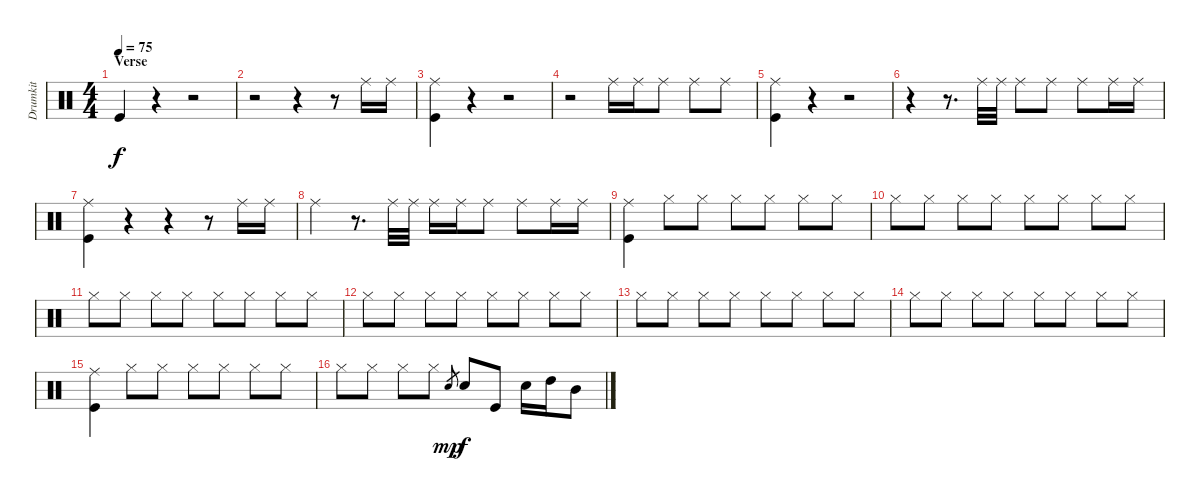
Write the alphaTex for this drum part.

\track ("Drumkit" "Drumkit") {instrument percussion}
\staff {score}
\articulation defaults
\ts (4 4)
\section ("" "Verse ")
\tempo 75
\clef neutral
\ks c "Kick (hit)".4{dy f}
r.4 r.2 |
r.2 r.4 r.8 "Ride (middle)".16 "Ride (middle)".16 |
("Ride (middle)" "Kick (hit)").4 r.4 r.2 |
r.2 "Ride (middle)".16 "Ride (middle)".16 "Ride (middle)".8 "Ride (middle)".8 "Ride (middle)".8 |
("Ride (middle)" "Kick (hit)").4 r.4 r.2 |
r.4 r.8{d} "Ride (middle)".32 "Ride (middle)".32 "Ride (middle)".8 "Ride (middle)".8 "Ride (middle)".8 "Ride (middle)".16 "Ride (middle)".16 |
("Ride (middle)" "Kick (hit)").4 r.4 r.4 r.8 "Ride (middle)".16 "Ride (middle)".16 |
"Ride (middle)".4 r.8{d} "Ride (middle)".32 "Ride (middle)".32 "Ride (middle)".16 "Ride (middle)".16 "Ride (middle)".8 "Ride (middle)".8 "Ride (middle)".16 "Ride (middle)".16 |
("Ride (middle)" "Kick (hit)").4 "Hi-Hat (closed)".8 "Hi-Hat (closed)".8 "Hi-Hat (closed)".8 "Hi-Hat (closed)".8 "Hi-Hat (closed)".8 "Hi-Hat (closed)".8 |
"Hi-Hat (closed)".8 "Hi-Hat (closed)".8 "Hi-Hat (closed)".8 "Hi-Hat (closed)".8 "Hi-Hat (closed)".8 "Hi-Hat (closed)".8 "Hi-Hat (closed)".8 "Hi-Hat (closed)".8 |
"Hi-Hat (closed)".8 "Hi-Hat (closed)".8 "Hi-Hat (closed)".8 "Hi-Hat (closed)".8 "Hi-Hat (closed)".8 "Hi-Hat (closed)".8 "Hi-Hat (closed)".8 "Hi-Hat (closed)".8 |
"Hi-Hat (closed)".8 "Hi-Hat (closed)".8 "Hi-Hat (closed)".8 "Hi-Hat (closed)".8 "Hi-Hat (closed)".8 "Hi-Hat (closed)".8 "Hi-Hat (closed)".8 "Hi-Hat (closed)".8 |
"Hi-Hat (closed)".8 "Hi-Hat (closed)".8 "Hi-Hat (closed)".8 "Hi-Hat (closed)".8 "Hi-Hat (closed)".8 "Hi-Hat (closed)".8 "Hi-Hat (closed)".8 "Hi-Hat (closed)".8 |
"Hi-Hat (closed)".8 "Hi-Hat (closed)".8 "Hi-Hat (closed)".8 "Hi-Hat (closed)".8 "Hi-Hat (closed)".8 "Hi-Hat (closed)".8 "Hi-Hat (closed)".8 "Hi-Hat (closed)".8 |
("Ride (middle)" "Kick (hit)").4 "Hi-Hat (closed)".8 "Hi-Hat (closed)".8 "Hi-Hat (closed)".8 "Hi-Hat (closed)".8 "Hi-Hat (closed)".8 "Hi-Hat (closed)".8 |
"Hi-Hat (closed)".8 "Hi-Hat (closed)".8 "Hi-Hat (closed)".8 "Hi-Hat (closed)".8 "Snare (hit)".8{gr dy mp} "Snare (hit) 2".8{dy f} "Kick (hit)".8 "Snare (hit) 2".16 "High Tom (hit)".16 "Mid Tom (hit)".8
